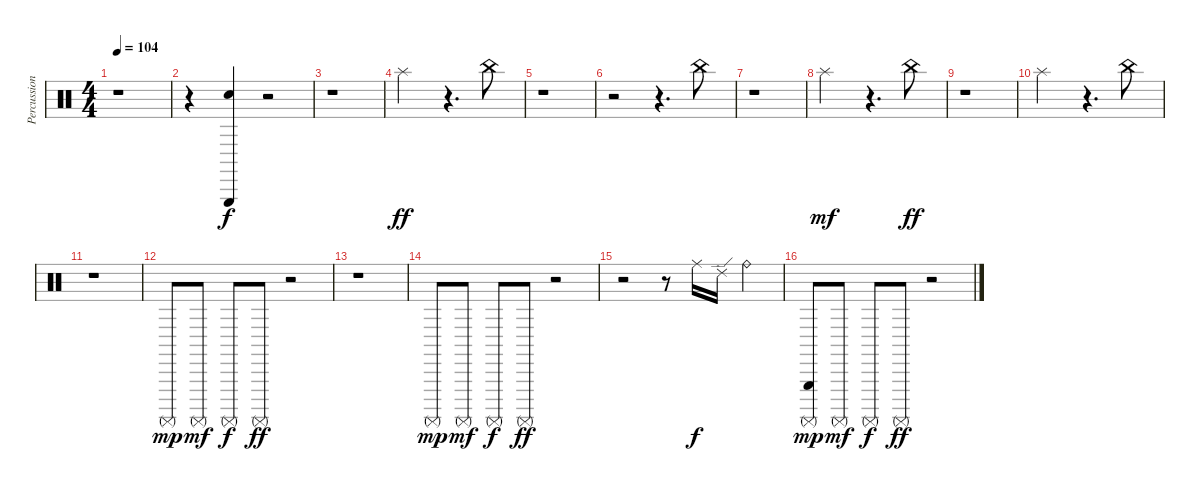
\track ("Percussion" "Percussion") {instrument percussion}
\staff {score}
\articulation defaults
\ts (4 4)
\tempo 104
\clef neutral
\ks c
r.1{dy fff} |
r.4 ("Metronome (bell)" "Triangle (hit)").4{dy f} r.2 |
r.1 |
"Splash (hit)".2{dy ff} r.4{d} "China (hit)".8 |
r.1 |
r.2 r.4{d} "China (hit)".8 |
r.1 |
"Splash (hit)".2{dy mf} r.4{d} "China (hit)".8{dy ff} |
r.1 |
"Splash (hit)".2 r.4{d} "China (hit)".8 |
r.1 |
"Surdo (mute)".8{dy mp} "Surdo (mute)".8{dy mf} "Surdo (mute)".8{dy f} "Surdo (mute)".8{dy ff} r.2 |
r.1 |
"Surdo (mute)".8{dy mp} "Surdo (mute)".8{dy mf} "Surdo (mute)".8{dy f} "Surdo (mute)".8{dy ff} r.2 |
r.2 r.8 "Ride (middle)".16{dy f} "Ride (edge) 2".16 "Ride (bell)".4 |
("Triangle (hit)" "Surdo (mute)").8{dy mp} "Surdo (mute)".8{dy mf} "Surdo (mute)".8{dy f} "Surdo (mute)".8{dy ff} r.2
